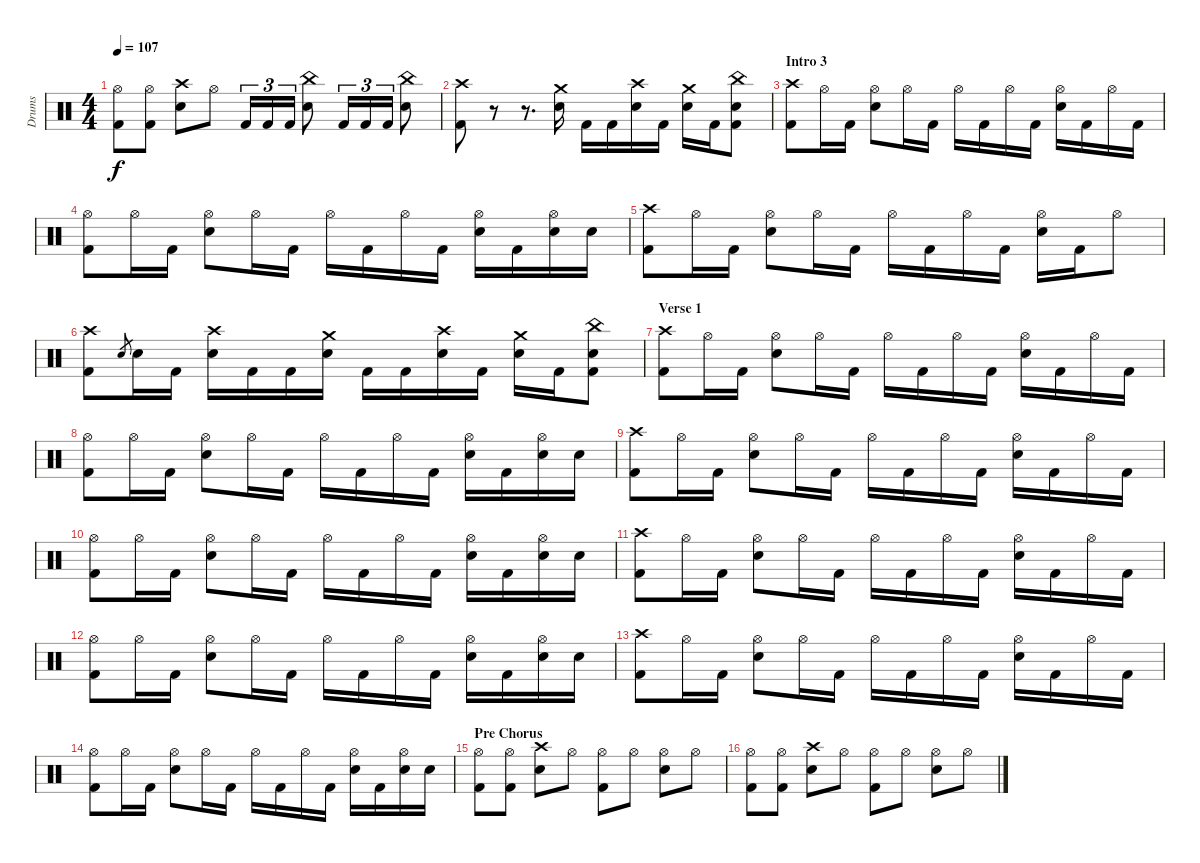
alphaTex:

\track ("Drums" "Drums") {instrument percussion}
\staff {score}
\articulation defaults
\ts (4 4)
\tempo 107
\clef neutral
\ks c
("Hi-Hat (open)" "Kick (hit) 2").8{dy f} ("Hi-Hat (open)" "Kick (hit) 2").8 ("Crash high (hit)" "Electric Snare (hit)").8 "Hi-Hat (open)".8 "Kick (hit) 2".16{tu (3 2)} "Kick (hit) 2".16{tu (3 2)} "Kick (hit) 2".16{tu (3 2)} ("China (hit)" "Electric Snare (hit)").8 "Kick (hit) 2".16{tu (3 2)} "Kick (hit) 2".16{tu (3 2)} "Kick (hit) 2".16{tu (3 2)} ("China (hit)" "Electric Snare (hit)").8 |
("Crash high (hit)" "Kick (hit) 2").8 r.8 r.8{d} ("Crash medium (hit)" "Electric Snare (hit)").16 "Kick (hit) 2".16 "Kick (hit) 2".16 ("Crash high (hit)" "Electric Snare (hit)").16 "Kick (hit) 2".16 ("Crash medium (hit)" "Electric Snare (hit)").16 "Kick (hit) 2".16 ("China (hit)" "Electric Snare (hit)" "Kick (hit) 2").8 |
\section ("" "Intro 3")
("Crash high (hit)" "Kick (hit) 2").8 "Hi-Hat (open)".16 "Kick (hit) 2".16 ("Hi-Hat (open)" "Electric Snare (hit)").8 "Hi-Hat (open)".16 "Kick (hit) 2".16 "Hi-Hat (open)".16 "Kick (hit) 2".16 "Hi-Hat (open)".16 "Kick (hit) 2".16 ("Hi-Hat (open)" "Electric Snare (hit)").16 "Kick (hit) 2".16 "Hi-Hat (open)".16 "Kick (hit) 2".16 |
("Hi-Hat (open)" "Kick (hit) 2").8 "Hi-Hat (open)".16 "Kick (hit) 2".16 ("Hi-Hat (open)" "Electric Snare (hit)").8 "Hi-Hat (open)".16 "Kick (hit) 2".16 "Hi-Hat (open)".16 "Kick (hit) 2".16 "Hi-Hat (open)".16 "Kick (hit) 2".16 ("Hi-Hat (open)" "Electric Snare (hit)").16 "Kick (hit) 2".16 ("Hi-Hat (open)" "Electric Snare (hit)").16 "Electric Snare (hit)".16 |
("Crash high (hit)" "Kick (hit) 2").8 "Hi-Hat (open)".16 "Kick (hit) 2".16 ("Hi-Hat (open)" "Electric Snare (hit)").8 "Hi-Hat (open)".16 "Kick (hit) 2".16 "Hi-Hat (open)".16 "Kick (hit) 2".16 "Hi-Hat (open)".16 "Kick (hit) 2".16 ("Hi-Hat (open)" "Electric Snare (hit)").16 "Kick (hit) 2".16 "Hi-Hat (open)".8 |
("Crash high (hit)" "Kick (hit) 2").8 "Electric Snare (hit)".8{gr} "Electric Snare (hit)".16 "Kick (hit) 2".16 ("Crash high (hit)" "Electric Snare (hit)").16 "Kick (hit) 2".16 "Kick (hit) 2".16 ("Crash medium (hit)" "Electric Snare (hit)").16 "Kick (hit) 2".16 "Kick (hit) 2".16 ("Crash high (hit)" "Electric Snare (hit)").16 "Kick (hit) 2".16 ("Crash medium (hit)" "Electric Snare (hit)").16 "Kick (hit) 2".16 ("China (hit)" "Electric Snare (hit)" "Kick (hit) 2").8 |
\section ("" "Verse 1")
("Crash high (hit)" "Kick (hit) 2").8 "Hi-Hat (open)".16 "Kick (hit) 2".16 ("Hi-Hat (open)" "Electric Snare (hit)").8 "Hi-Hat (open)".16 "Kick (hit) 2".16 "Hi-Hat (open)".16 "Kick (hit) 2".16 "Hi-Hat (open)".16 "Kick (hit) 2".16 ("Hi-Hat (open)" "Electric Snare (hit)").16 "Kick (hit) 2".16 "Hi-Hat (open)".16 "Kick (hit) 2".16 |
("Hi-Hat (open)" "Kick (hit) 2").8 "Hi-Hat (open)".16 "Kick (hit) 2".16 ("Hi-Hat (open)" "Electric Snare (hit)").8 "Hi-Hat (open)".16 "Kick (hit) 2".16 "Hi-Hat (open)".16 "Kick (hit) 2".16 "Hi-Hat (open)".16 "Kick (hit) 2".16 ("Hi-Hat (open)" "Electric Snare (hit)").16 "Kick (hit) 2".16 ("Hi-Hat (open)" "Electric Snare (hit)").16 "Electric Snare (hit)".16 |
("Crash high (hit)" "Kick (hit) 2").8 "Hi-Hat (open)".16 "Kick (hit) 2".16 ("Hi-Hat (open)" "Electric Snare (hit)").8 "Hi-Hat (open)".16 "Kick (hit) 2".16 "Hi-Hat (open)".16 "Kick (hit) 2".16 "Hi-Hat (open)".16 "Kick (hit) 2".16 ("Hi-Hat (open)" "Electric Snare (hit)").16 "Kick (hit) 2".16 "Hi-Hat (open)".16 "Kick (hit) 2".16 |
("Hi-Hat (open)" "Kick (hit) 2").8 "Hi-Hat (open)".16 "Kick (hit) 2".16 ("Hi-Hat (open)" "Electric Snare (hit)").8 "Hi-Hat (open)".16 "Kick (hit) 2".16 "Hi-Hat (open)".16 "Kick (hit) 2".16 "Hi-Hat (open)".16 "Kick (hit) 2".16 ("Hi-Hat (open)" "Electric Snare (hit)").16 "Kick (hit) 2".16 ("Hi-Hat (open)" "Electric Snare (hit)").16 "Electric Snare (hit)".16 |
("Crash high (hit)" "Kick (hit) 2").8 "Hi-Hat (open)".16 "Kick (hit) 2".16 ("Hi-Hat (open)" "Electric Snare (hit)").8 "Hi-Hat (open)".16 "Kick (hit) 2".16 "Hi-Hat (open)".16 "Kick (hit) 2".16 "Hi-Hat (open)".16 "Kick (hit) 2".16 ("Hi-Hat (open)" "Electric Snare (hit)").16 "Kick (hit) 2".16 "Hi-Hat (open)".16 "Kick (hit) 2".16 |
("Hi-Hat (open)" "Kick (hit) 2").8 "Hi-Hat (open)".16 "Kick (hit) 2".16 ("Hi-Hat (open)" "Electric Snare (hit)").8 "Hi-Hat (open)".16 "Kick (hit) 2".16 "Hi-Hat (open)".16 "Kick (hit) 2".16 "Hi-Hat (open)".16 "Kick (hit) 2".16 ("Hi-Hat (open)" "Electric Snare (hit)").16 "Kick (hit) 2".16 ("Hi-Hat (open)" "Electric Snare (hit)").16 "Electric Snare (hit)".16 |
("Crash high (hit)" "Kick (hit) 2").8 "Hi-Hat (open)".16 "Kick (hit) 2".16 ("Hi-Hat (open)" "Electric Snare (hit)").8 "Hi-Hat (open)".16 "Kick (hit) 2".16 "Hi-Hat (open)".16 "Kick (hit) 2".16 "Hi-Hat (open)".16 "Kick (hit) 2".16 ("Hi-Hat (open)" "Electric Snare (hit)").16 "Kick (hit) 2".16 "Hi-Hat (open)".16 "Kick (hit) 2".16 |
("Hi-Hat (open)" "Kick (hit) 2").8 "Hi-Hat (open)".16 "Kick (hit) 2".16 ("Hi-Hat (open)" "Electric Snare (hit)").8 "Hi-Hat (open)".16 "Kick (hit) 2".16 "Hi-Hat (open)".16 "Kick (hit) 2".16 "Hi-Hat (open)".16 "Kick (hit) 2".16 ("Hi-Hat (open)" "Electric Snare (hit)").16 "Kick (hit) 2".16 ("Hi-Hat (open)" "Electric Snare (hit)").16 "Electric Snare (hit)".16 |
\section ("" "Pre Chorus")
("Hi-Hat (open)" "Kick (hit) 2").8 ("Hi-Hat (open)" "Kick (hit) 2").8 ("Crash high (hit)" "Electric Snare (hit)").8 "Hi-Hat (open)".8 ("Hi-Hat (open)" "Kick (hit) 2").8 "Hi-Hat (open)".8 ("Hi-Hat (open)" "Electric Snare (hit)").8 "Hi-Hat (open)".8 |
("Hi-Hat (open)" "Kick (hit) 2").8 ("Hi-Hat (open)" "Kick (hit) 2").8 ("Crash high (hit)" "Electric Snare (hit)").8 "Hi-Hat (open)".8 ("Hi-Hat (open)" "Kick (hit) 2").8 "Hi-Hat (open)".8 ("Hi-Hat (open)" "Electric Snare (hit)").8 "Hi-Hat (open)".8
